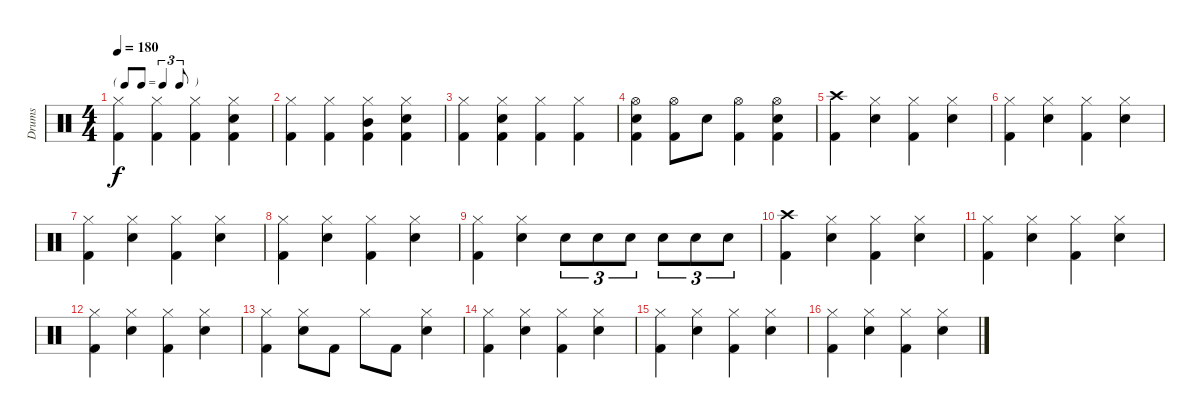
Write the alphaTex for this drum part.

\track ("Drums" "Drums") {instrument percussion}
\staff {score}
\articulation defaults
\ts (4 4)
\tf triplet8th
\tempo 180
\clef neutral
\ks c
("Hi-Hat (closed)" "Kick (hit) 2").4{dy f} ("Hi-Hat (closed)" "Kick (hit) 2").4 ("Hi-Hat (closed)" "Kick (hit) 2").4 ("Hi-Hat (closed)" "Snare (hit) 2" "Kick (hit) 2").4 |
("Hi-Hat (closed)" "Kick (hit) 2").4 ("Hi-Hat (closed)" "Kick (hit) 2").4 ("Hi-Hat (closed)" "Mid Tom (hit)" "Kick (hit) 2").4 ("Hi-Hat (closed)" "Snare (hit) 2" "Kick (hit) 2").4 |
("Hi-Hat (closed)" "Kick (hit) 2").4 ("Hi-Hat (closed)" "Snare (hit) 2" "Kick (hit) 2").4 ("Hi-Hat (closed)" "Kick (hit) 2").4 ("Hi-Hat (closed)" "Kick (hit) 2").4 |
("Hi-Hat (open)" "Snare (hit) 2" "Kick (hit) 2").4 ("Hi-Hat (open)" "Kick (hit) 2").8 "Snare (hit) 2".8 ("Hi-Hat (open)" "Kick (hit) 2").4 ("Hi-Hat (open)" "Snare (hit) 2" "Kick (hit) 2").4 |
("Crash high (hit)" "Kick (hit) 2").4 ("Hi-Hat (closed)" "Snare (hit) 2").4 ("Hi-Hat (closed)" "Kick (hit) 2").4 ("Hi-Hat (closed)" "Snare (hit) 2").4 |
("Hi-Hat (closed)" "Kick (hit) 2").4 ("Hi-Hat (closed)" "Snare (hit) 2").4 ("Hi-Hat (closed)" "Kick (hit) 2").4 ("Hi-Hat (closed)" "Snare (hit) 2").4 |
("Hi-Hat (closed)" "Kick (hit) 2").4 ("Hi-Hat (closed)" "Snare (hit) 2").4 ("Hi-Hat (closed)" "Kick (hit) 2").4 ("Hi-Hat (closed)" "Snare (hit) 2").4 |
("Hi-Hat (closed)" "Kick (hit) 2").4 ("Hi-Hat (closed)" "Snare (hit) 2").4 ("Hi-Hat (closed)" "Kick (hit) 2").4 ("Hi-Hat (closed)" "Snare (hit) 2").4 |
("Hi-Hat (closed)" "Kick (hit) 2").4 ("Hi-Hat (closed)" "Snare (hit) 2").4 "Snare (hit) 2".8{tu (3 2)} "Snare (hit) 2".8{tu (3 2)} "Snare (hit) 2".8{tu (3 2)} "Snare (hit) 2".8{tu (3 2)} "Snare (hit) 2".8{tu (3 2)} "Snare (hit) 2".8{tu (3 2)} |
("Crash high (hit)" "Kick (hit) 2").4 ("Hi-Hat (closed)" "Snare (hit) 2").4 ("Hi-Hat (closed)" "Kick (hit) 2").4 ("Hi-Hat (closed)" "Snare (hit) 2").4 |
("Hi-Hat (closed)" "Kick (hit) 2").4 ("Hi-Hat (closed)" "Snare (hit) 2").4 ("Hi-Hat (closed)" "Kick (hit) 2").4 ("Hi-Hat (closed)" "Snare (hit) 2").4 |
("Hi-Hat (closed)" "Kick (hit) 2").4 ("Hi-Hat (closed)" "Snare (hit) 2").4 ("Hi-Hat (closed)" "Kick (hit) 2").4 ("Hi-Hat (closed)" "Snare (hit) 2").4 |
("Hi-Hat (closed)" "Kick (hit) 2").4 ("Hi-Hat (closed)" "Snare (hit) 2").8 "Kick (hit) 2".8 "Hi-Hat (closed)".8 "Kick (hit) 2".8 ("Hi-Hat (closed)" "Snare (hit) 2").4 |
("Hi-Hat (closed)" "Kick (hit) 2").4 ("Hi-Hat (closed)" "Snare (hit) 2").4 ("Hi-Hat (closed)" "Kick (hit) 2").4 ("Hi-Hat (closed)" "Snare (hit) 2").4 |
("Hi-Hat (closed)" "Kick (hit) 2").4 ("Hi-Hat (closed)" "Snare (hit) 2").4 ("Hi-Hat (closed)" "Kick (hit) 2").4 ("Hi-Hat (closed)" "Snare (hit) 2").4 |
("Hi-Hat (closed)" "Kick (hit) 2").4 ("Hi-Hat (closed)" "Snare (hit) 2").4 ("Hi-Hat (closed)" "Kick (hit) 2").4 ("Hi-Hat (closed)" "Snare (hit) 2").4
